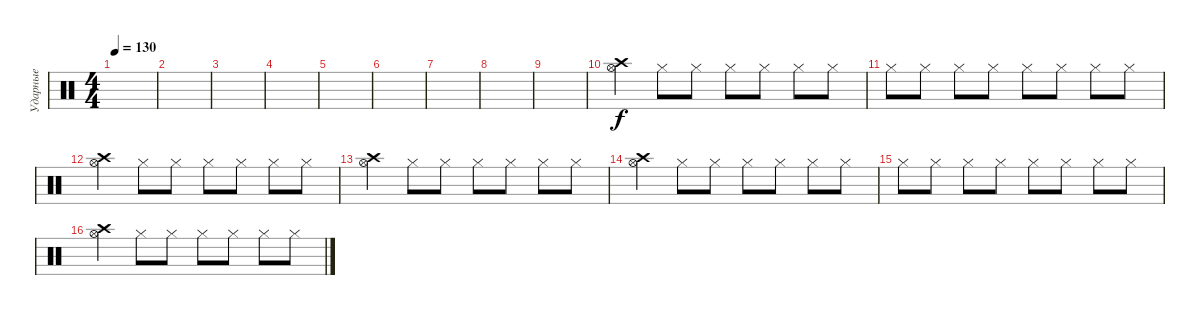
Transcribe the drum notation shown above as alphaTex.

\track ("Ударные" "Ударные") {instrument percussion}
\staff {score}
\articulation defaults
\ts (4 4)
\tempo 130
\clef neutral
\ks c
|
|
|
|
|
|
|
|
|
("Hi-Hat (open)" "Crash high (hit)").4 "Hi-Hat (closed)".8 "Hi-Hat (closed)".8 "Hi-Hat (closed)".8 "Hi-Hat (closed)".8 "Hi-Hat (closed)".8 "Hi-Hat (closed)".8 |
"Hi-Hat (closed)".8 "Hi-Hat (closed)".8 "Hi-Hat (closed)".8 "Hi-Hat (closed)".8 "Hi-Hat (closed)".8 "Hi-Hat (closed)".8 "Hi-Hat (closed)".8 "Hi-Hat (closed)".8 |
("Hi-Hat (open)" "Crash high (hit)").4 "Hi-Hat (closed)".8 "Hi-Hat (closed)".8 "Hi-Hat (closed)".8 "Hi-Hat (closed)".8 "Hi-Hat (closed)".8 "Hi-Hat (closed)".8 |
("Hi-Hat (open)" "Crash high (hit)").4 "Hi-Hat (closed)".8 "Hi-Hat (closed)".8 "Hi-Hat (closed)".8 "Hi-Hat (closed)".8 "Hi-Hat (closed)".8 "Hi-Hat (closed)".8 |
("Hi-Hat (open)" "Crash high (hit)").4 "Hi-Hat (closed)".8 "Hi-Hat (closed)".8 "Hi-Hat (closed)".8 "Hi-Hat (closed)".8 "Hi-Hat (closed)".8 "Hi-Hat (closed)".8 |
"Hi-Hat (closed)".8 "Hi-Hat (closed)".8 "Hi-Hat (closed)".8 "Hi-Hat (closed)".8 "Hi-Hat (closed)".8 "Hi-Hat (closed)".8 "Hi-Hat (closed)".8 "Hi-Hat (closed)".8 |
("Hi-Hat (open)" "Crash high (hit)").4 "Hi-Hat (closed)".8 "Hi-Hat (closed)".8 "Hi-Hat (closed)".8 "Hi-Hat (closed)".8 "Hi-Hat (closed)".8 "Hi-Hat (closed)".8
